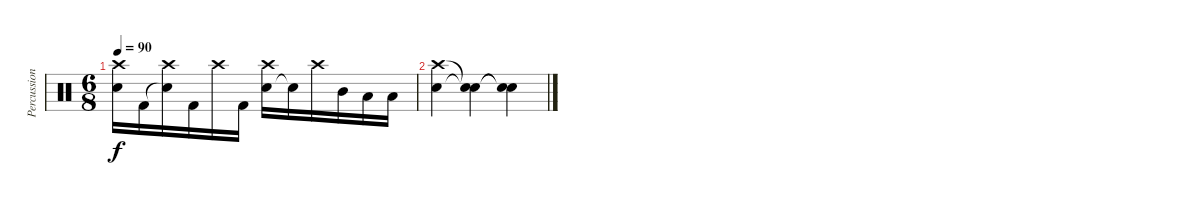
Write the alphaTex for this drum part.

\track ("Percussions" "Percussion") {instrument percussion}
\staff {score}
\articulation defaults
\ts (6 8)
\tempo 90
\clef neutral
\ks c
("Snare (hit) 2" "Crash high (hit)").16{dy f} "Kick (hit) 2".16 ("Snare (hit)"{t} "Crash high (hit)").16 "Kick (hit) 2".16 "Crash high (hit)".16 "Kick (hit) 2".16 ("Snare (hit) 2" "Crash high (hit)").16 "Snare (hit)"{t}.16 "Crash high (hit)".16 "Mid Tom (hit)".16 "Low Tom (hit)".16 "Low Floor Tom (hit)".16 |
("Snare (hit) 2" "Crash high (hit)").4 ("Snare (hit)"{t} "Snare (hit)"{t}).4 ("Snare (hit)"{t} "Snare (hit)"{t}).4
